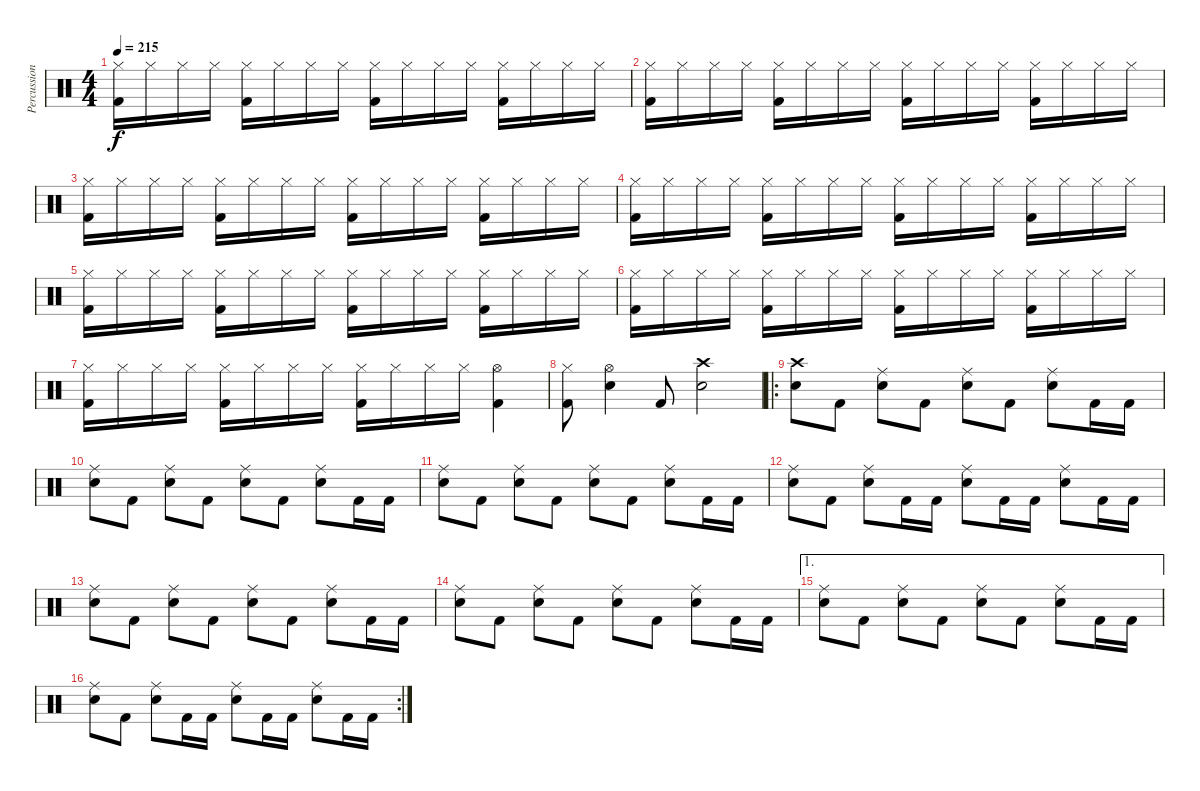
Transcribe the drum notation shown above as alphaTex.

\track ("Percussion" "Percussion") {instrument percussion}
\staff {score}
\articulation defaults
\ts (4 4)
\tempo 215
\clef neutral
\ks aminor
("Hi-Hat (closed)" "Kick (hit) 2").16{dy f} "Hi-Hat (closed)".16 "Hi-Hat (closed)".16 "Hi-Hat (closed)".16 ("Hi-Hat (closed)" "Kick (hit) 2").16 "Hi-Hat (closed)".16 "Hi-Hat (closed)".16 "Hi-Hat (closed)".16 ("Hi-Hat (closed)" "Kick (hit) 2").16 "Hi-Hat (closed)".16 "Hi-Hat (closed)".16 "Hi-Hat (closed)".16 ("Hi-Hat (closed)" "Kick (hit) 2").16 "Hi-Hat (closed)".16 "Hi-Hat (closed)".16 "Hi-Hat (closed)".16 |
("Hi-Hat (closed)" "Kick (hit) 2").16 "Hi-Hat (closed)".16 "Hi-Hat (closed)".16 "Hi-Hat (closed)".16 ("Hi-Hat (closed)" "Kick (hit) 2").16 "Hi-Hat (closed)".16 "Hi-Hat (closed)".16 "Hi-Hat (closed)".16 ("Hi-Hat (closed)" "Kick (hit) 2").16 "Hi-Hat (closed)".16 "Hi-Hat (closed)".16 "Hi-Hat (closed)".16 ("Hi-Hat (closed)" "Kick (hit) 2").16 "Hi-Hat (closed)".16 "Hi-Hat (closed)".16 "Hi-Hat (closed)".16 |
("Hi-Hat (closed)" "Kick (hit) 2").16 "Hi-Hat (closed)".16 "Hi-Hat (closed)".16 "Hi-Hat (closed)".16 ("Hi-Hat (closed)" "Kick (hit) 2").16 "Hi-Hat (closed)".16 "Hi-Hat (closed)".16 "Hi-Hat (closed)".16 ("Hi-Hat (closed)" "Kick (hit) 2").16 "Hi-Hat (closed)".16 "Hi-Hat (closed)".16 "Hi-Hat (closed)".16 ("Hi-Hat (closed)" "Kick (hit) 2").16 "Hi-Hat (closed)".16 "Hi-Hat (closed)".16 "Hi-Hat (closed)".16 |
("Hi-Hat (closed)" "Kick (hit) 2").16 "Hi-Hat (closed)".16 "Hi-Hat (closed)".16 "Hi-Hat (closed)".16 ("Hi-Hat (closed)" "Kick (hit) 2").16 "Hi-Hat (closed)".16 "Hi-Hat (closed)".16 "Hi-Hat (closed)".16 ("Hi-Hat (closed)" "Kick (hit) 2").16 "Hi-Hat (closed)".16 "Hi-Hat (closed)".16 "Hi-Hat (closed)".16 ("Hi-Hat (closed)" "Kick (hit) 2").16 "Hi-Hat (closed)".16 "Hi-Hat (closed)".16 "Hi-Hat (closed)".16 |
("Hi-Hat (closed)" "Kick (hit) 2").16 "Hi-Hat (closed)".16 "Hi-Hat (closed)".16 "Hi-Hat (closed)".16 ("Hi-Hat (closed)" "Kick (hit) 2").16 "Hi-Hat (closed)".16 "Hi-Hat (closed)".16 "Hi-Hat (closed)".16 ("Hi-Hat (closed)" "Kick (hit) 2").16 "Hi-Hat (closed)".16 "Hi-Hat (closed)".16 "Hi-Hat (closed)".16 ("Hi-Hat (closed)" "Kick (hit) 2").16 "Hi-Hat (closed)".16 "Hi-Hat (closed)".16 "Hi-Hat (closed)".16 |
("Hi-Hat (closed)" "Kick (hit) 2").16 "Hi-Hat (closed)".16 "Hi-Hat (closed)".16 "Hi-Hat (closed)".16 ("Hi-Hat (closed)" "Kick (hit) 2").16 "Hi-Hat (closed)".16 "Hi-Hat (closed)".16 "Hi-Hat (closed)".16 ("Hi-Hat (closed)" "Kick (hit) 2").16 "Hi-Hat (closed)".16 "Hi-Hat (closed)".16 "Hi-Hat (closed)".16 ("Hi-Hat (closed)" "Kick (hit) 2").16 "Hi-Hat (closed)".16 "Hi-Hat (closed)".16 "Hi-Hat (closed)".16 |
("Hi-Hat (closed)" "Kick (hit) 2").16 "Hi-Hat (closed)".16 "Hi-Hat (closed)".16 "Hi-Hat (closed)".16 ("Hi-Hat (closed)" "Kick (hit) 2").16 "Hi-Hat (closed)".16 "Hi-Hat (closed)".16 "Hi-Hat (closed)".16 ("Hi-Hat (closed)" "Kick (hit) 2").16 "Hi-Hat (closed)".16 "Hi-Hat (closed)".16 "Hi-Hat (closed)".16 ("Hi-Hat (open)" "Kick (hit) 2").4 |
("Hi-Hat (closed)" "Kick (hit) 2").8 ("Hi-Hat (open)" "Snare (hit) 2").4 "Kick (hit) 2".8 ("Crash high (hit)" "Snare (hit) 2").2 |
\ro
("Crash high (hit)" "Snare (hit) 2").8 "Kick (hit) 2".8 ("Ride (middle)" "Snare (hit) 2").8 "Kick (hit) 2".8 ("Ride (middle)" "Snare (hit) 2").8 "Kick (hit) 2".8 ("Ride (middle)" "Snare (hit) 2").8 "Kick (hit) 2".16 "Kick (hit) 2".16 |
("Ride (middle)" "Snare (hit) 2").8 "Kick (hit) 2".8 ("Ride (middle)" "Snare (hit) 2").8 "Kick (hit) 2".8 ("Ride (middle)" "Snare (hit) 2").8 "Kick (hit) 2".8 ("Ride (middle)" "Snare (hit) 2").8 "Kick (hit) 2".16 "Kick (hit) 2".16 |
("Ride (middle)" "Snare (hit) 2").8 "Kick (hit) 2".8 ("Ride (middle)" "Snare (hit) 2").8 "Kick (hit) 2".8 ("Ride (middle)" "Snare (hit) 2").8 "Kick (hit) 2".8 ("Ride (middle)" "Snare (hit) 2").8 "Kick (hit) 2".16 "Kick (hit) 2".16 |
("Ride (middle)" "Snare (hit) 2").8 "Kick (hit) 2".8 ("Ride (middle)" "Snare (hit) 2").8 "Kick (hit) 2".16 "Kick (hit) 2".16 ("Ride (middle)" "Snare (hit) 2").8 "Kick (hit) 2".16 "Kick (hit) 2".16 ("Ride (middle)" "Snare (hit) 2").8 "Kick (hit) 2".16 "Kick (hit) 2".16 |
("Ride (middle)" "Snare (hit) 2").8 "Kick (hit) 2".8 ("Ride (middle)" "Snare (hit) 2").8 "Kick (hit) 2".8 ("Ride (middle)" "Snare (hit) 2").8 "Kick (hit) 2".8 ("Ride (middle)" "Snare (hit) 2").8 "Kick (hit) 2".16 "Kick (hit) 2".16 |
("Ride (middle)" "Snare (hit) 2").8 "Kick (hit) 2".8 ("Ride (middle)" "Snare (hit) 2").8 "Kick (hit) 2".8 ("Ride (middle)" "Snare (hit) 2").8 "Kick (hit) 2".8 ("Ride (middle)" "Snare (hit) 2").8 "Kick (hit) 2".16 "Kick (hit) 2".16 |
\ae 1
("Ride (middle)" "Snare (hit) 2").8 "Kick (hit) 2".8 ("Ride (middle)" "Snare (hit) 2").8 "Kick (hit) 2".8 ("Ride (middle)" "Snare (hit) 2").8 "Kick (hit) 2".8 ("Ride (middle)" "Snare (hit) 2").8 "Kick (hit) 2".16 "Kick (hit) 2".16 |
\rc 2
("Ride (middle)" "Snare (hit) 2").8 "Kick (hit) 2".8 ("Ride (middle)" "Snare (hit) 2").8 "Kick (hit) 2".16 "Kick (hit) 2".16 ("Ride (middle)" "Snare (hit) 2").8 "Kick (hit) 2".16 "Kick (hit) 2".16 ("Ride (middle)" "Snare (hit) 2").8 "Kick (hit) 2".16 "Kick (hit) 2".16
